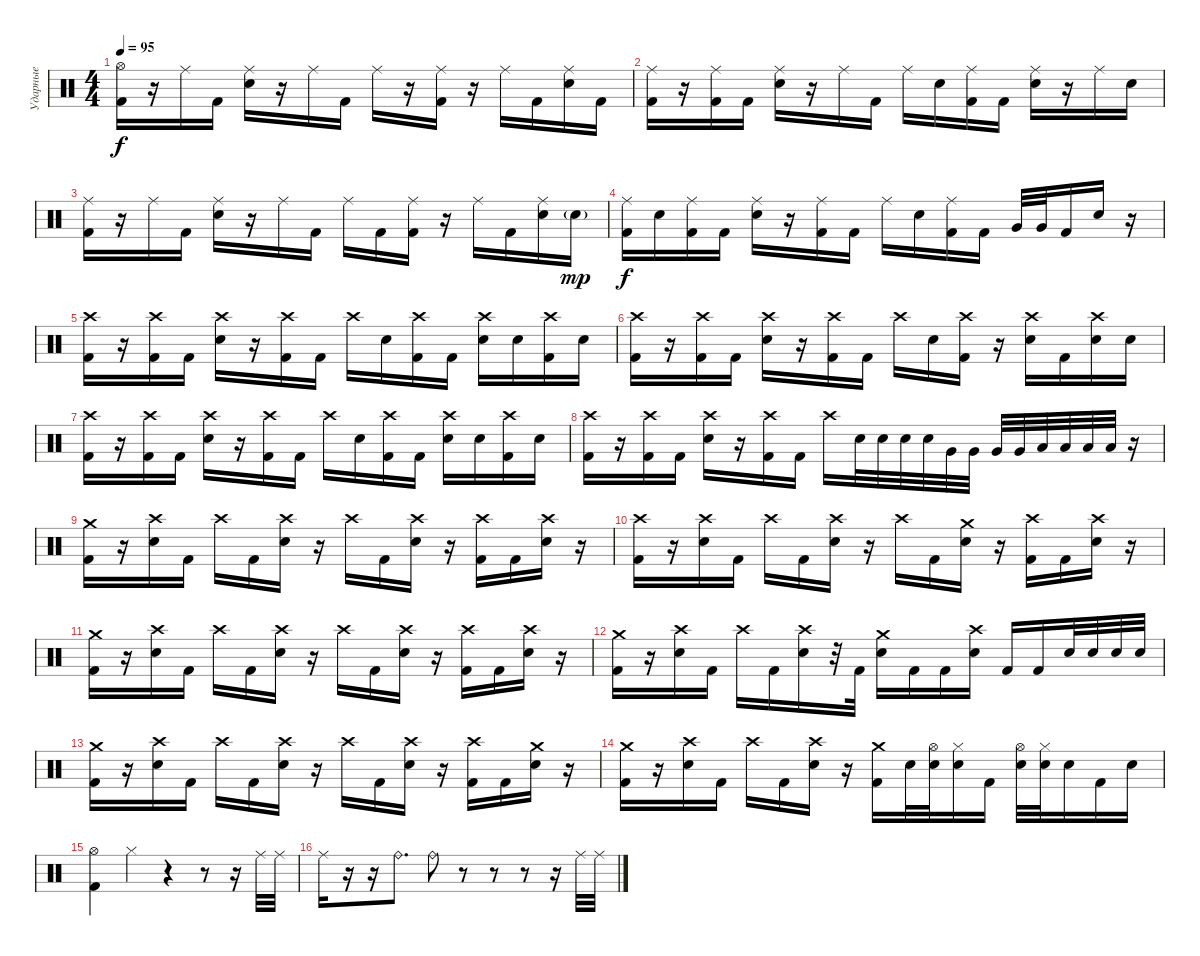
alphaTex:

\track ("Ударные" "Ударные") {instrument percussion}
\staff {score}
\articulation defaults
\ts (4 4)
\tempo 95
\clef neutral
\ks c
("Hi-Hat (open)" "Kick (hit) 2").16{dy f} r.16 "Ride (middle)".16 "Kick (hit) 2".16 ("Ride (middle)" "Electric Snare (hit)").16 r.16 "Ride (middle)".16 "Kick (hit) 2".16 "Ride (middle)".16 r.16 ("Ride (middle)" "Kick (hit) 2").16 r.16 "Ride (middle)".16 "Kick (hit) 2".16 ("Ride (middle)" "Electric Snare (hit)").16 "Kick (hit) 2".16 |
("Ride (middle)" "Kick (hit) 2").16 r.16 ("Ride (middle)" "Kick (hit) 2").16 "Kick (hit) 2".16 ("Ride (middle)" "Electric Snare (hit)").16 r.16 "Ride (middle)".16 "Kick (hit) 2".16 "Ride (middle)".16 "Electric Snare (hit)".16 ("Ride (middle)" "Kick (hit) 2").16 "Kick (hit) 2".16 ("Ride (middle)" "Electric Snare (hit)").16 r.16 "Ride (middle)".16 "Electric Snare (hit)".16 |
("Ride (middle)" "Kick (hit) 2").16 r.16 "Ride (middle)".16 "Kick (hit) 2".16 ("Ride (middle)" "Electric Snare (hit)").16 r.16 "Ride (middle)".16 "Kick (hit) 2".16 "Ride (middle)".16 "Kick (hit) 2".16 ("Ride (middle)" "Kick (hit) 2").16 r.16 "Ride (middle)".16 "Kick (hit) 2".16 ("Ride (middle)" "Electric Snare (hit)").16 "Electric Snare (hit)"{g}.16{dy mp} |
("Ride (middle)" "Kick (hit) 2").16{dy f} "Electric Snare (hit)".16 ("Ride (middle)" "Kick (hit) 2").16 "Kick (hit) 2".16 ("Ride (middle)" "Electric Snare (hit)").16 r.16 ("Ride (middle)" "Kick (hit) 2").16 "Kick (hit) 2".16 "Ride (middle)".16 "Electric Snare (hit)".16 ("Ride (middle)" "Kick (hit) 2").16 "Kick (hit) 2".16 "Very Low Tom (hit)".32 "Very Low Tom (hit)".32 "Kick (hit) 2".16 "Electric Snare (hit)".16 r.16 |
("Crash high (hit)" "Kick (hit) 2").16 r.16 ("Crash high (hit)" "Kick (hit) 2").16 "Kick (hit) 2".16 ("Crash high (hit)" "Electric Snare (hit)").16 r.16 ("Crash high (hit)" "Kick (hit) 2").16 "Kick (hit) 2".16 "Crash high (hit)".16 "Electric Snare (hit)".16 ("Crash high (hit)" "Kick (hit) 2").16 "Kick (hit) 2".16 ("Crash high (hit)" "Electric Snare (hit)").16 "Electric Snare (hit)".16 ("Crash high (hit)" "Kick (hit) 2").16 "Electric Snare (hit)".16 |
("Crash high (hit)" "Kick (hit) 2").16 r.16 ("Crash high (hit)" "Kick (hit) 2").16 "Kick (hit) 2".16 ("Crash high (hit)" "Electric Snare (hit)").16 r.16 ("Crash high (hit)" "Kick (hit) 2").16 "Kick (hit) 2".16 "Crash high (hit)".16 "Electric Snare (hit)".16 ("Crash high (hit)" "Kick (hit) 2").16 r.16 ("Crash high (hit)" "Electric Snare (hit)").16 "Kick (hit) 2".16 ("Crash high (hit)" "Electric Snare (hit)").16 "Electric Snare (hit)".16 |
("Crash high (hit)" "Kick (hit) 2").16 r.16 ("Crash high (hit)" "Kick (hit) 2").16 "Kick (hit) 2".16 ("Crash high (hit)" "Electric Snare (hit)").16 r.16 ("Crash high (hit)" "Kick (hit) 2").16 "Kick (hit) 2".16 "Crash high (hit)".16 "Electric Snare (hit)".16 ("Crash high (hit)" "Kick (hit) 2").16 "Kick (hit) 2".16 ("Crash high (hit)" "Electric Snare (hit)").16 "Electric Snare (hit)".16 ("Crash high (hit)" "Kick (hit) 2").16 "Electric Snare (hit)".16 |
("Crash high (hit)" "Kick (hit) 2").16 r.16 ("Crash high (hit)" "Kick (hit) 2").16 "Kick (hit) 2".16 ("Crash high (hit)" "Electric Snare (hit)").16 r.16 ("Crash high (hit)" "Kick (hit) 2").16 "Kick (hit) 2".16 "Crash high (hit)".16 "Electric Snare (hit)".32 "Electric Snare (hit)".32 "Electric Snare (hit)".32 "Electric Snare (hit)".32 "Very Low Tom (hit)".32 "Very Low Tom (hit)".32 "Very Low Tom (hit)".32 "Very Low Tom (hit)".32 "Low Floor Tom (hit)".32 "Low Floor Tom (hit)".32 "Low Floor Tom (hit)".32 "Low Floor Tom (hit)".32 r.16 |
("Crash medium (hit)" "Kick (hit) 2").16 r.16 ("Crash high (hit)" "Electric Snare (hit)").16 "Kick (hit) 2".16 "Crash high (hit)".16 "Kick (hit) 2".16 ("Crash high (hit)" "Electric Snare (hit)").16 r.16 "Crash high (hit)".16 "Kick (hit) 2".16 ("Crash high (hit)" "Electric Snare (hit)").16 r.16 ("Crash high (hit)" "Kick (hit) 2").16 "Kick (hit) 2".16 ("Crash high (hit)" "Electric Snare (hit)").16 r.16 |
("Crash high (hit)" "Kick (hit) 2").16 r.16 ("Crash high (hit)" "Electric Snare (hit)").16 "Kick (hit) 2".16 "Crash high (hit)".16 "Kick (hit) 2".16 ("Crash high (hit)" "Electric Snare (hit)").16 r.16 "Crash high (hit)".16 "Kick (hit) 2".16 ("Crash medium (hit)" "Electric Snare (hit)").16 r.16 ("Crash high (hit)" "Kick (hit) 2").16 "Kick (hit) 2".16 ("Crash high (hit)" "Electric Snare (hit)").16 r.16 |
("Crash medium (hit)" "Kick (hit) 2").16 r.16 ("Crash high (hit)" "Electric Snare (hit)").16 "Kick (hit) 2".16 "Crash high (hit)".16 "Kick (hit) 2".16 ("Crash high (hit)" "Electric Snare (hit)").16 r.16 "Crash high (hit)".16 "Kick (hit) 2".16 ("Crash high (hit)" "Electric Snare (hit)").16 r.16 ("Crash high (hit)" "Kick (hit) 2").16 "Kick (hit) 2".16 ("Crash high (hit)" "Electric Snare (hit)").16 r.16 |
("Crash medium (hit)" "Kick (hit) 2").16 r.16 ("Crash high (hit)" "Electric Snare (hit)").16 "Kick (hit) 2".16 "Crash high (hit)".16 "Kick (hit) 2".16 ("Crash high (hit)" "Electric Snare (hit)").16 r.32 "Kick (hit) 2".32 ("Crash medium (hit)" "Electric Snare (hit)").16 "Kick (hit) 2".16 "Kick (hit) 2".16 ("Crash high (hit)" "Electric Snare (hit)").16 "Kick (hit) 2".16 "Kick (hit) 2".16 "Electric Snare (hit)".32 "Electric Snare (hit)".32 "Electric Snare (hit)".32 "Electric Snare (hit)".32 |
("Crash medium (hit)" "Kick (hit) 2").16 r.16 ("Crash high (hit)" "Electric Snare (hit)").16 "Kick (hit) 2".16 "Crash high (hit)".16 "Kick (hit) 2".16 ("Crash high (hit)" "Electric Snare (hit)").16 r.16 "Crash high (hit)".16 "Kick (hit) 2".16 ("Crash high (hit)" "Electric Snare (hit)").16 r.16 ("Crash high (hit)" "Kick (hit) 2").16 "Kick (hit) 2".16 ("Crash medium (hit)" "Electric Snare (hit)").16 r.16 |
("Crash medium (hit)" "Kick (hit) 2").16 r.16 ("Crash high (hit)" "Electric Snare (hit)").16 "Kick (hit) 2".16 "Crash high (hit)".16 "Kick (hit) 2".16 ("Crash high (hit)" "Electric Snare (hit)").16 r.16 ("Crash medium (hit)" "Kick (hit) 2").16 "Electric Snare (hit)".32 ("Hi-Hat (open)" "Electric Snare (hit)").32 ("Hi-Hat (closed)" "Electric Snare (hit)").16 "Kick (hit) 2".16 ("Hi-Hat (open)" "Electric Snare (hit)").32 ("Hi-Hat (closed)" "Electric Snare (hit)").32 "Electric Snare (hit)".16 "Kick (hit) 2".16 "Electric Snare (hit)".16 |
("Hi-Hat (open)" "Kick (hit) 2").4 "Hi-Hat (closed)".4 r.4 r.8 r.16 "Ride (middle)".32 "Ride (middle)".32 |
"Ride (middle)".16 r.16 r.16 "Ride (bell)".8{d} "Ride (bell)".8 r.8 r.8 r.8 r.16 "Ride (middle)".32 "Ride (middle)".32
